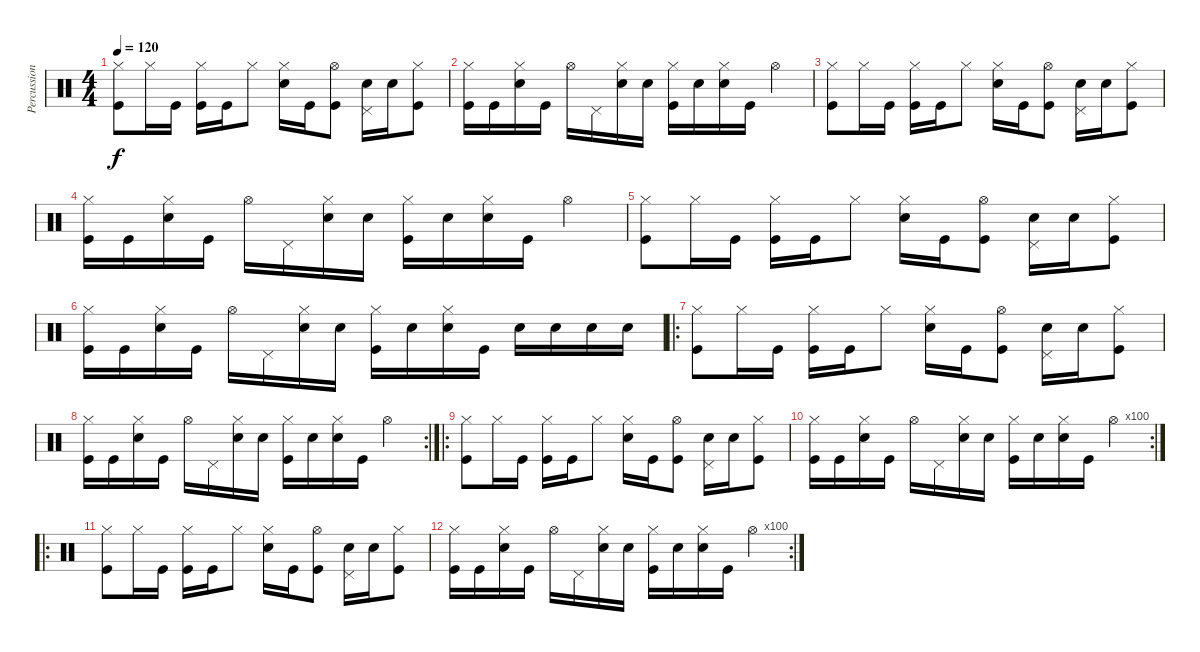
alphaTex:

\track ("Percussion" "Percussion") {instrument percussion}
\staff {score}
\articulation defaults
\ts (4 4)
\tempo 120
\clef neutral
\ks c
("Hi-Hat (closed)" "Kick (hit)").8{dy f} "Hi-Hat (closed)".16 "Kick (hit)".16 ("Hi-Hat (closed)" "Kick (hit)").16 "Kick (hit)".16 "Hi-Hat (closed)".8 ("Hi-Hat (closed)" "Snare (hit) 2").16 "Kick (hit)".16 ("Hi-Hat (open)" "Kick (hit)").8 ("Pedal Hi-Hat (hit)" "Snare (hit) 2").16 "Snare (hit) 2".16 ("Hi-Hat (closed)" "Kick (hit)").8 |
("Hi-Hat (closed)" "Kick (hit)").16 "Kick (hit)".16 ("Hi-Hat (closed)" "Snare (hit) 2").16 "Kick (hit)".16 "Hi-Hat (open)".16 "Pedal Hi-Hat (hit)".16 ("Hi-Hat (closed)" "Snare (hit) 2").16 "Snare (hit) 2".16 ("Hi-Hat (closed)" "Kick (hit)").16 "Snare (hit) 2".16 ("Hi-Hat (closed)" "Snare (hit) 2").16 "Kick (hit)".16 "Hi-Hat (open)".4 |
("Hi-Hat (closed)" "Kick (hit)").8 "Hi-Hat (closed)".16 "Kick (hit)".16 ("Hi-Hat (closed)" "Kick (hit)").16 "Kick (hit)".16 "Hi-Hat (closed)".8 ("Hi-Hat (closed)" "Snare (hit) 2").16 "Kick (hit)".16 ("Hi-Hat (open)" "Kick (hit)").8 ("Pedal Hi-Hat (hit)" "Snare (hit) 2").16 "Snare (hit) 2".16 ("Hi-Hat (closed)" "Kick (hit)").8 |
("Hi-Hat (closed)" "Kick (hit)").16 "Kick (hit)".16 ("Hi-Hat (closed)" "Snare (hit) 2").16 "Kick (hit)".16 "Hi-Hat (open)".16 "Pedal Hi-Hat (hit)".16 ("Hi-Hat (closed)" "Snare (hit) 2").16 "Snare (hit) 2".16 ("Hi-Hat (closed)" "Kick (hit)").16 "Snare (hit) 2".16 ("Hi-Hat (closed)" "Snare (hit) 2").16 "Kick (hit)".16 "Hi-Hat (open)".4 |
("Hi-Hat (closed)" "Kick (hit)").8 "Hi-Hat (closed)".16 "Kick (hit)".16 ("Hi-Hat (closed)" "Kick (hit)").16 "Kick (hit)".16 "Hi-Hat (closed)".8 ("Hi-Hat (closed)" "Snare (hit) 2").16 "Kick (hit)".16 ("Hi-Hat (open)" "Kick (hit)").8 ("Pedal Hi-Hat (hit)" "Snare (hit) 2").16 "Snare (hit) 2".16 ("Hi-Hat (closed)" "Kick (hit)").8 |
("Hi-Hat (closed)" "Kick (hit)").16 "Kick (hit)".16 ("Hi-Hat (closed)" "Snare (hit) 2").16 "Kick (hit)".16 "Hi-Hat (open)".16 "Pedal Hi-Hat (hit)".16 ("Hi-Hat (closed)" "Snare (hit) 2").16 "Snare (hit) 2".16 ("Hi-Hat (closed)" "Kick (hit)").16 "Snare (hit) 2".16 ("Hi-Hat (closed)" "Snare (hit) 2").16 "Kick (hit)".16 "Snare (hit) 2".16 "Snare (hit) 2".16 "Snare (hit) 2".16 "Snare (hit) 2".16 |
\ro
("Hi-Hat (closed)" "Kick (hit)").8 "Hi-Hat (closed)".16 "Kick (hit)".16 ("Hi-Hat (closed)" "Kick (hit)").16 "Kick (hit)".16 "Hi-Hat (closed)".8 ("Hi-Hat (closed)" "Snare (hit) 2").16 "Kick (hit)".16 ("Hi-Hat (open)" "Kick (hit)").8 ("Pedal Hi-Hat (hit)" "Snare (hit) 2").16 "Snare (hit) 2".16 ("Hi-Hat (closed)" "Kick (hit)").8 |
\rc 2
("Hi-Hat (closed)" "Kick (hit)").16 "Kick (hit)".16 ("Hi-Hat (closed)" "Snare (hit) 2").16 "Kick (hit)".16 "Hi-Hat (open)".16 "Pedal Hi-Hat (hit)".16 ("Hi-Hat (closed)" "Snare (hit) 2").16 "Snare (hit) 2".16 ("Hi-Hat (closed)" "Kick (hit)").16 "Snare (hit) 2".16 ("Hi-Hat (closed)" "Snare (hit) 2").16 "Kick (hit)".16 "Hi-Hat (open)".4 |
\ro
("Hi-Hat (closed)" "Kick (hit)").8 "Hi-Hat (closed)".16 "Kick (hit)".16 ("Hi-Hat (closed)" "Kick (hit)").16 "Kick (hit)".16 "Hi-Hat (closed)".8 ("Hi-Hat (closed)" "Snare (hit) 2").16 "Kick (hit)".16 ("Hi-Hat (open)" "Kick (hit)").8 ("Pedal Hi-Hat (hit)" "Snare (hit) 2").16 "Snare (hit) 2".16 ("Hi-Hat (closed)" "Kick (hit)").8 |
\rc 100
("Hi-Hat (closed)" "Kick (hit)").16 "Kick (hit)".16 ("Hi-Hat (closed)" "Snare (hit) 2").16 "Kick (hit)".16 "Hi-Hat (open)".16 "Pedal Hi-Hat (hit)".16 ("Hi-Hat (closed)" "Snare (hit) 2").16 "Snare (hit) 2".16 ("Hi-Hat (closed)" "Kick (hit)").16 "Snare (hit) 2".16 ("Hi-Hat (closed)" "Snare (hit) 2").16 "Kick (hit)".16 "Hi-Hat (open)".4 |
\ro
("Hi-Hat (closed)" "Kick (hit)").8 "Hi-Hat (closed)".16 "Kick (hit)".16 ("Hi-Hat (closed)" "Kick (hit)").16 "Kick (hit)".16 "Hi-Hat (closed)".8 ("Hi-Hat (closed)" "Snare (hit) 2").16 "Kick (hit)".16 ("Hi-Hat (open)" "Kick (hit)").8 ("Pedal Hi-Hat (hit)" "Snare (hit) 2").16 "Snare (hit) 2".16 ("Hi-Hat (closed)" "Kick (hit)").8 |
\rc 100
("Hi-Hat (closed)" "Kick (hit)").16 "Kick (hit)".16 ("Hi-Hat (closed)" "Snare (hit) 2").16 "Kick (hit)".16 "Hi-Hat (open)".16 "Pedal Hi-Hat (hit)".16 ("Hi-Hat (closed)" "Snare (hit) 2").16 "Snare (hit) 2".16 ("Hi-Hat (closed)" "Kick (hit)").16 "Snare (hit) 2".16 ("Hi-Hat (closed)" "Snare (hit) 2").16 "Kick (hit)".16 "Hi-Hat (open)".4
